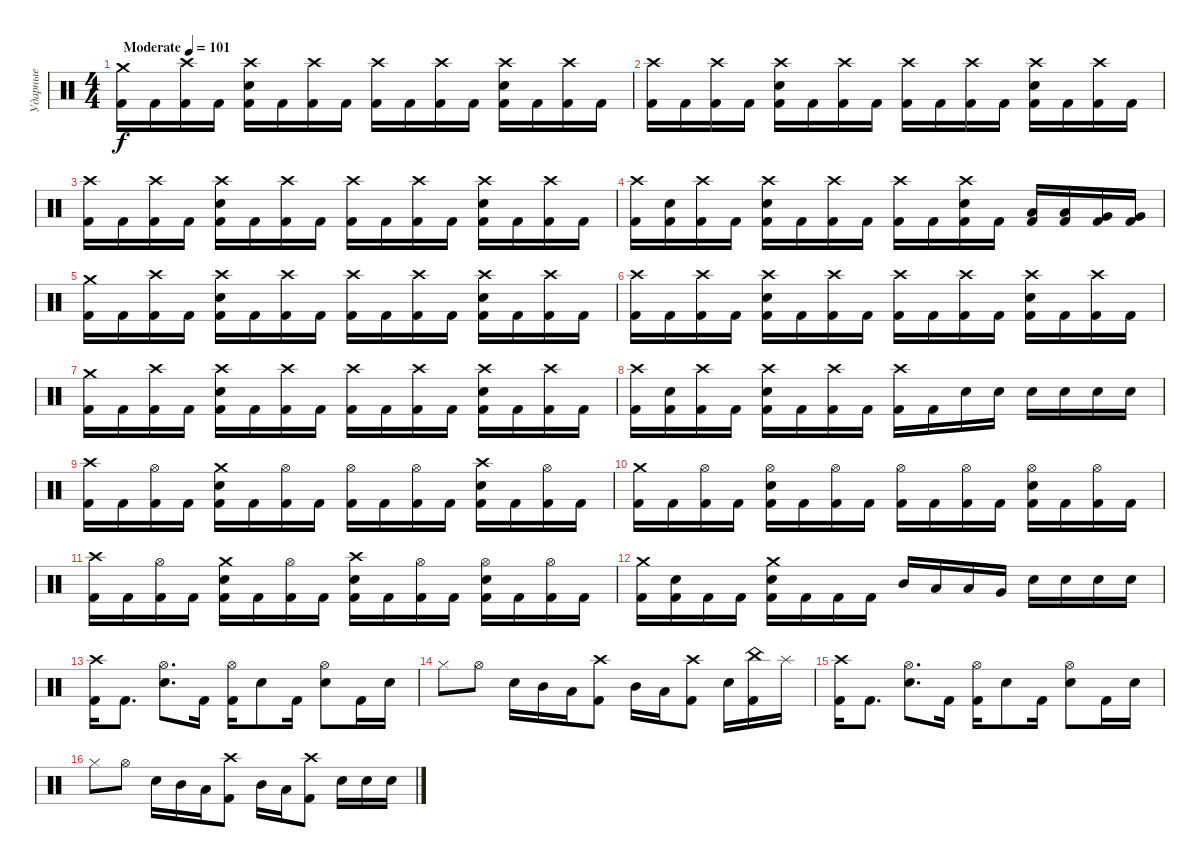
\track ("Ударные" "Ударные") {instrument percussion}
\staff {score}
\articulation defaults
\ts (4 4)
\tempo (101 "Moderate")
\clef neutral
\ks c
("Crash medium (hit)" "Kick (hit) 2").16{dy f} "Kick (hit) 2".16 ("Crash high (hit)" "Kick (hit) 2").16 "Kick (hit) 2".16 ("Crash high (hit)" "Electric Snare (hit)" "Kick (hit) 2").16 "Kick (hit) 2".16 ("Crash high (hit)" "Kick (hit) 2").16 "Kick (hit) 2".16 ("Crash high (hit)" "Kick (hit) 2").16 "Kick (hit) 2".16 ("Crash high (hit)" "Kick (hit) 2").16 "Kick (hit) 2".16 ("Crash high (hit)" "Electric Snare (hit)" "Kick (hit) 2").16 "Kick (hit) 2".16 ("Crash high (hit)" "Kick (hit) 2").16 "Kick (hit) 2".16 |
("Crash high (hit)" "Kick (hit) 2").16 "Kick (hit) 2".16 ("Crash high (hit)" "Kick (hit) 2").16 "Kick (hit) 2".16 ("Crash high (hit)" "Electric Snare (hit)" "Kick (hit) 2").16 "Kick (hit) 2".16 ("Crash high (hit)" "Kick (hit) 2").16 "Kick (hit) 2".16 ("Crash high (hit)" "Kick (hit) 2").16 "Kick (hit) 2".16 ("Crash high (hit)" "Kick (hit) 2").16 "Kick (hit) 2".16 ("Crash high (hit)" "Electric Snare (hit)" "Kick (hit) 2").16 "Kick (hit) 2".16 ("Crash high (hit)" "Kick (hit) 2").16 "Kick (hit) 2".16 |
("Crash high (hit)" "Kick (hit) 2").16 "Kick (hit) 2".16 ("Crash high (hit)" "Kick (hit) 2").16 "Kick (hit) 2".16 ("Crash high (hit)" "Electric Snare (hit)" "Kick (hit) 2").16 "Kick (hit) 2".16 ("Crash high (hit)" "Kick (hit) 2").16 "Kick (hit) 2".16 ("Crash high (hit)" "Kick (hit) 2").16 "Kick (hit) 2".16 ("Crash high (hit)" "Kick (hit) 2").16 "Kick (hit) 2".16 ("Crash high (hit)" "Electric Snare (hit)" "Kick (hit) 2").16 "Kick (hit) 2".16 ("Crash high (hit)" "Kick (hit) 2").16 "Kick (hit) 2".16 |
("Crash high (hit)" "Kick (hit) 2").16 ("Electric Snare (hit)" "Kick (hit) 2").16 ("Crash high (hit)" "Kick (hit) 2").16 "Kick (hit) 2".16 ("Crash high (hit)" "Electric Snare (hit)" "Kick (hit) 2").16 "Kick (hit) 2".16 ("Crash high (hit)" "Kick (hit) 2").16 "Kick (hit) 2".16 ("Crash high (hit)" "Kick (hit) 2").16 "Kick (hit) 2".16 ("Crash high (hit)" "Electric Snare (hit)" "Kick (hit) 2").16 "Kick (hit) 2".16 ("Low Tom (hit)" "Kick (hit) 2").16 ("Low Tom (hit)" "Kick (hit) 2").16 ("Very Low Tom (hit)" "Kick (hit) 2").16 ("Very Low Tom (hit)" "Kick (hit) 2").16 |
("Crash medium (hit)" "Kick (hit) 2").16 "Kick (hit) 2".16 ("Crash high (hit)" "Kick (hit) 2").16 "Kick (hit) 2".16 ("Crash high (hit)" "Electric Snare (hit)" "Kick (hit) 2").16 "Kick (hit) 2".16 ("Crash high (hit)" "Kick (hit) 2").16 "Kick (hit) 2".16 ("Crash high (hit)" "Kick (hit) 2").16 "Kick (hit) 2".16 ("Crash high (hit)" "Kick (hit) 2").16 "Kick (hit) 2".16 ("Crash high (hit)" "Electric Snare (hit)" "Kick (hit) 2").16 "Kick (hit) 2".16 ("Crash high (hit)" "Kick (hit) 2").16 "Kick (hit) 2".16 |
("Crash high (hit)" "Kick (hit) 2").16 "Kick (hit) 2".16 ("Crash high (hit)" "Kick (hit) 2").16 "Kick (hit) 2".16 ("Crash high (hit)" "Electric Snare (hit)" "Kick (hit) 2").16 "Kick (hit) 2".16 ("Crash high (hit)" "Kick (hit) 2").16 "Kick (hit) 2".16 ("Crash high (hit)" "Kick (hit) 2").16 "Kick (hit) 2".16 ("Crash high (hit)" "Kick (hit) 2").16 "Kick (hit) 2".16 ("Crash high (hit)" "Electric Snare (hit)" "Kick (hit) 2").16 "Kick (hit) 2".16 ("Crash high (hit)" "Kick (hit) 2").16 "Kick (hit) 2".16 |
("Crash medium (hit)" "Kick (hit) 2").16 "Kick (hit) 2".16 ("Crash high (hit)" "Kick (hit) 2").16 "Kick (hit) 2".16 ("Crash high (hit)" "Electric Snare (hit)" "Kick (hit) 2").16 "Kick (hit) 2".16 ("Crash high (hit)" "Kick (hit) 2").16 "Kick (hit) 2".16 ("Crash high (hit)" "Kick (hit) 2").16 "Kick (hit) 2".16 ("Crash high (hit)" "Kick (hit) 2").16 "Kick (hit) 2".16 ("Crash high (hit)" "Electric Snare (hit)" "Kick (hit) 2").16 "Kick (hit) 2".16 ("Crash high (hit)" "Kick (hit) 2").16 "Kick (hit) 2".16 |
("Crash high (hit)" "Kick (hit) 2").16 ("Electric Snare (hit)" "Kick (hit) 2").16 ("Crash high (hit)" "Kick (hit) 2").16 "Kick (hit) 2".16 ("Crash high (hit)" "Electric Snare (hit)" "Kick (hit) 2").16 "Kick (hit) 2".16 ("Crash high (hit)" "Kick (hit) 2").16 "Kick (hit) 2".16 ("Crash high (hit)" "Kick (hit) 2").16 "Kick (hit) 2".16 "Electric Snare (hit)".16 "Electric Snare (hit)".16 "Electric Snare (hit)".16 "Electric Snare (hit)".16 "Electric Snare (hit)".16 "Electric Snare (hit)".16 |
("Crash high (hit)" "Kick (hit) 2").16 "Kick (hit) 2".16 ("Hi-Hat (open)" "Kick (hit) 2").16 "Kick (hit) 2".16 ("Crash medium (hit)" "Electric Snare (hit)" "Kick (hit) 2").16 "Kick (hit) 2".16 ("Hi-Hat (open)" "Kick (hit) 2").16 "Kick (hit) 2".16 ("Hi-Hat (open)" "Kick (hit) 2").16 "Kick (hit) 2".16 ("Hi-Hat (open)" "Kick (hit) 2").16 "Kick (hit) 2".16 ("Crash high (hit)" "Electric Snare (hit)" "Kick (hit) 2").16 "Kick (hit) 2".16 ("Hi-Hat (open)" "Kick (hit) 2").16 "Kick (hit) 2".16 |
("Crash medium (hit)" "Kick (hit) 2").16 "Kick (hit) 2".16 ("Hi-Hat (open)" "Kick (hit) 2").16 "Kick (hit) 2".16 ("Hi-Hat (open)" "Electric Snare (hit)" "Kick (hit) 2").16 "Kick (hit) 2".16 ("Hi-Hat (open)" "Kick (hit) 2").16 "Kick (hit) 2".16 ("Hi-Hat (open)" "Kick (hit) 2").16 "Kick (hit) 2".16 ("Hi-Hat (open)" "Kick (hit) 2").16 "Kick (hit) 2".16 ("Hi-Hat (open)" "Electric Snare (hit)" "Kick (hit) 2").16 "Kick (hit) 2".16 ("Hi-Hat (open)" "Kick (hit) 2").16 "Kick (hit) 2".16 |
("Crash high (hit)" "Kick (hit) 2").16 "Kick (hit) 2".16 ("Hi-Hat (open)" "Kick (hit) 2").16 "Kick (hit) 2".16 ("Crash medium (hit)" "Electric Snare (hit)" "Kick (hit) 2").16 "Kick (hit) 2".16 ("Hi-Hat (open)" "Kick (hit) 2").16 "Kick (hit) 2".16 ("Crash high (hit)" "Electric Snare (hit)" "Kick (hit) 2").16 "Kick (hit) 2".16 ("Hi-Hat (open)" "Kick (hit) 2").16 "Kick (hit) 2".16 ("Hi-Hat (open)" "Electric Snare (hit)" "Kick (hit) 2").16 "Kick (hit) 2".16 ("Hi-Hat (open)" "Kick (hit) 2").16 "Kick (hit) 2".16 |
("Crash medium (hit)" "Kick (hit) 2").16 ("Electric Snare (hit)" "Kick (hit) 2").16 "Kick (hit) 2".16 "Kick (hit) 2".16 ("Crash medium (hit)" "Electric Snare (hit)" "Kick (hit) 2").16 "Kick (hit) 2".16 "Kick (hit) 2".16 "Kick (hit) 2".16 "Mid Tom (hit)".16 "Low Tom (hit)".16 "Low Tom (hit)".16 "Very Low Tom (hit)".16 "Electric Snare (hit)".16 "Electric Snare (hit)".16 "Electric Snare (hit)".16 "Electric Snare (hit)".16 |
("Crash high (hit)" "Kick (hit) 2").16 "Kick (hit) 2".8{d} ("Hi-Hat (open)" "Electric Snare (hit)").8{d} "Kick (hit) 2".16 ("Hi-Hat (open)" "Kick (hit) 2").16 "Electric Snare (hit)".8 "Kick (hit) 2".16 ("Hi-Hat (open)" "Electric Snare (hit)").8 "Kick (hit) 2".16 "Electric Snare (hit)".16 |
"Hi-Hat (closed)".8 "Hi-Hat (open)".8 "Electric Snare (hit)".16 "Mid Tom (hit)".16 "Low Tom (hit)".16 ("Crash high (hit)" "Kick (hit) 2").8 "Mid Tom (hit)".16 "Low Tom (hit)".16 ("Crash high (hit)" "Kick (hit) 2").8 "Electric Snare (hit)".16 ("China (hit)" "Kick (hit) 2").16 "Splash (hit)".16 |
("Crash high (hit)" "Kick (hit) 2").16 "Kick (hit) 2".8{d} ("Hi-Hat (open)" "Electric Snare (hit)").8{d} "Kick (hit) 2".16 ("Hi-Hat (open)" "Kick (hit) 2").16 "Electric Snare (hit)".8 "Kick (hit) 2".16 ("Hi-Hat (open)" "Electric Snare (hit)").8 "Kick (hit) 2".16 "Electric Snare (hit)".16 |
"Hi-Hat (closed)".8 "Hi-Hat (open)".8 "Electric Snare (hit)".16 "Mid Tom (hit)".16 "Low Tom (hit)".16 ("Crash high (hit)" "Kick (hit) 2").8 "Mid Tom (hit)".16 "Low Tom (hit)".16 ("Crash high (hit)" "Kick (hit) 2").8 "Electric Snare (hit)".16 "Electric Snare (hit)".16 "Electric Snare (hit)".16
